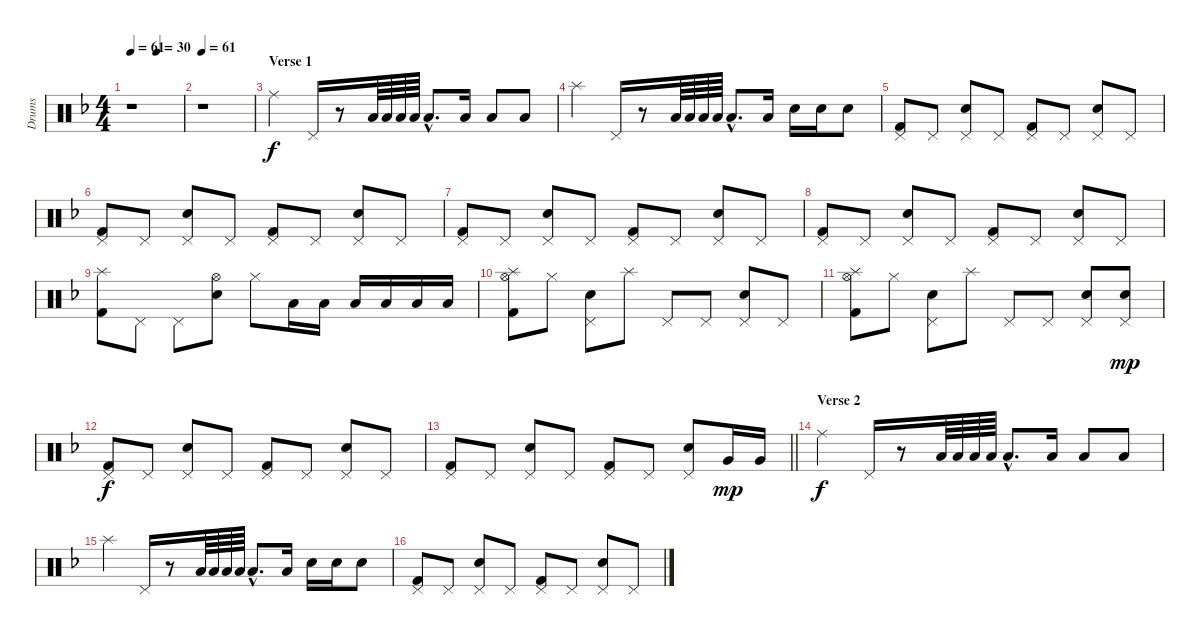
\track ("Drums" "Drums") {instrument percussion}
\staff {score}
\articulation defaults
\ts (4 4)
\tempo 61
\tempo (30 0.5)
\tempo 61
\clef neutral
\ks f
r.1{dy f} |
\tempo 61
r.1 |
\section ("" "Verse 1")
"Ride (middle)".4 "Pedal Hi-Hat (hit)".16 r.8 "Low Floor Tom (hit)".64 "Low Floor Tom (hit)".64 "Low Floor Tom (hit)".64 "Low Floor Tom (hit)".64 "Low Floor Tom (hit)"{hac}.8{d} "Low Floor Tom (hit)".16 "Low Floor Tom (hit)".8 "Low Floor Tom (hit)".8 |
"Splash (hit)".4 "Pedal Hi-Hat (hit)".16 r.8 "Low Floor Tom (hit)".64 "Low Floor Tom (hit)".64 "Low Floor Tom (hit)".64 "Low Floor Tom (hit)".64 "Low Floor Tom (hit)"{hac}.8{d} "Low Floor Tom (hit)".16 "Snare (hit) 2".16 "Snare (hit) 2".16 "Snare (hit) 2".8 |
("Pedal Hi-Hat (hit)" "Kick (hit) 2").8 "Pedal Hi-Hat (hit)".8 ("Pedal Hi-Hat (hit)" "Snare (hit) 2").8 "Pedal Hi-Hat (hit)".8 ("Pedal Hi-Hat (hit)" "Kick (hit) 2").8 "Pedal Hi-Hat (hit)".8 ("Pedal Hi-Hat (hit)" "Snare (hit) 2").8 "Pedal Hi-Hat (hit)".8 |
("Pedal Hi-Hat (hit)" "Kick (hit) 2").8 "Pedal Hi-Hat (hit)".8 ("Pedal Hi-Hat (hit)" "Snare (hit) 2").8 "Pedal Hi-Hat (hit)".8 ("Pedal Hi-Hat (hit)" "Kick (hit) 2").8 "Pedal Hi-Hat (hit)".8 ("Pedal Hi-Hat (hit)" "Snare (hit) 2").8 "Pedal Hi-Hat (hit)".8 |
("Pedal Hi-Hat (hit)" "Kick (hit) 2").8 "Pedal Hi-Hat (hit)".8 ("Pedal Hi-Hat (hit)" "Snare (hit) 2").8 "Pedal Hi-Hat (hit)".8 ("Pedal Hi-Hat (hit)" "Kick (hit) 2").8 "Pedal Hi-Hat (hit)".8 ("Pedal Hi-Hat (hit)" "Snare (hit) 2").8 "Pedal Hi-Hat (hit)".8 |
("Pedal Hi-Hat (hit)" "Kick (hit) 2").8 "Pedal Hi-Hat (hit)".8 ("Pedal Hi-Hat (hit)" "Snare (hit) 2").8 "Pedal Hi-Hat (hit)".8 ("Pedal Hi-Hat (hit)" "Kick (hit) 2").8 "Pedal Hi-Hat (hit)".8 ("Pedal Hi-Hat (hit)" "Snare (hit) 2").8 "Pedal Hi-Hat (hit)".8 |
("Splash (hit)" "Kick (hit) 2").8 "Pedal Hi-Hat (hit)".8 "Pedal Hi-Hat (hit)".8 ("Hi-Hat (open)" "Snare (hit) 2").8 "Hi-Hat (closed)".8 "Low Tom (hit)".16 "Low Tom (hit)".16 "Low Tom (hit)".16 "Low Tom (hit)".16 "Low Tom (hit)".16 "Low Tom (hit)".16 |
("Splash (hit)" "Hi-Hat (open)" "Kick (hit) 2").8 "Hi-Hat (closed)".8 ("Pedal Hi-Hat (hit)" "Snare (hit) 2").8 "Splash (hit)".8 "Pedal Hi-Hat (hit)".8 "Pedal Hi-Hat (hit)".8 ("Pedal Hi-Hat (hit)" "Snare (hit) 2").8 "Pedal Hi-Hat (hit)".8 |
("Splash (hit)" "Hi-Hat (open)" "Kick (hit) 2").8 "Hi-Hat (closed)".8 ("Pedal Hi-Hat (hit)" "Snare (hit) 2").8 "Splash (hit)".8 "Pedal Hi-Hat (hit)".8 "Pedal Hi-Hat (hit)".8 ("Pedal Hi-Hat (hit)" "Snare (hit) 2").8 ("Pedal Hi-Hat (hit)" "Snare (hit) 2").8{dy mp} |
("Pedal Hi-Hat (hit)" "Kick (hit) 2").8{dy f} "Pedal Hi-Hat (hit)".8 ("Pedal Hi-Hat (hit)" "Snare (hit) 2").8 "Pedal Hi-Hat (hit)".8 ("Pedal Hi-Hat (hit)" "Kick (hit) 2").8 "Pedal Hi-Hat (hit)".8 ("Pedal Hi-Hat (hit)" "Snare (hit) 2").8 "Pedal Hi-Hat (hit)".8 |
\barLineRight lightlight
("Pedal Hi-Hat (hit)" "Kick (hit) 2").8 "Pedal Hi-Hat (hit)".8 ("Pedal Hi-Hat (hit)" "Snare (hit) 2").8 "Pedal Hi-Hat (hit)".8 ("Pedal Hi-Hat (hit)" "Kick (hit) 2").8 "Pedal Hi-Hat (hit)".8 ("Pedal Hi-Hat (hit)" "Snare (hit) 2").8 "Very Low Tom (hit)".16{dy mp} "Very Low Tom (hit)".16 |
\section ("" "Verse 2")
"Ride (middle)".4{dy f} "Pedal Hi-Hat (hit)".16 r.8 "Low Floor Tom (hit)".64 "Low Floor Tom (hit)".64 "Low Floor Tom (hit)".64 "Low Floor Tom (hit)".64 "Low Floor Tom (hit)"{hac}.8{d} "Low Floor Tom (hit)".16 "Low Floor Tom (hit)".8 "Low Floor Tom (hit)".8 |
"Splash (hit)".4 "Pedal Hi-Hat (hit)".16 r.8 "Low Floor Tom (hit)".64 "Low Floor Tom (hit)".64 "Low Floor Tom (hit)".64 "Low Floor Tom (hit)".64 "Low Floor Tom (hit)"{hac}.8{d} "Low Floor Tom (hit)".16 "Snare (hit) 2".16 "Snare (hit) 2".16 "Snare (hit) 2".8 |
("Pedal Hi-Hat (hit)" "Kick (hit) 2").8 "Pedal Hi-Hat (hit)".8 ("Pedal Hi-Hat (hit)" "Snare (hit) 2").8 "Pedal Hi-Hat (hit)".8 ("Pedal Hi-Hat (hit)" "Kick (hit) 2").8 "Pedal Hi-Hat (hit)".8 ("Pedal Hi-Hat (hit)" "Snare (hit) 2").8 "Pedal Hi-Hat (hit)".8
